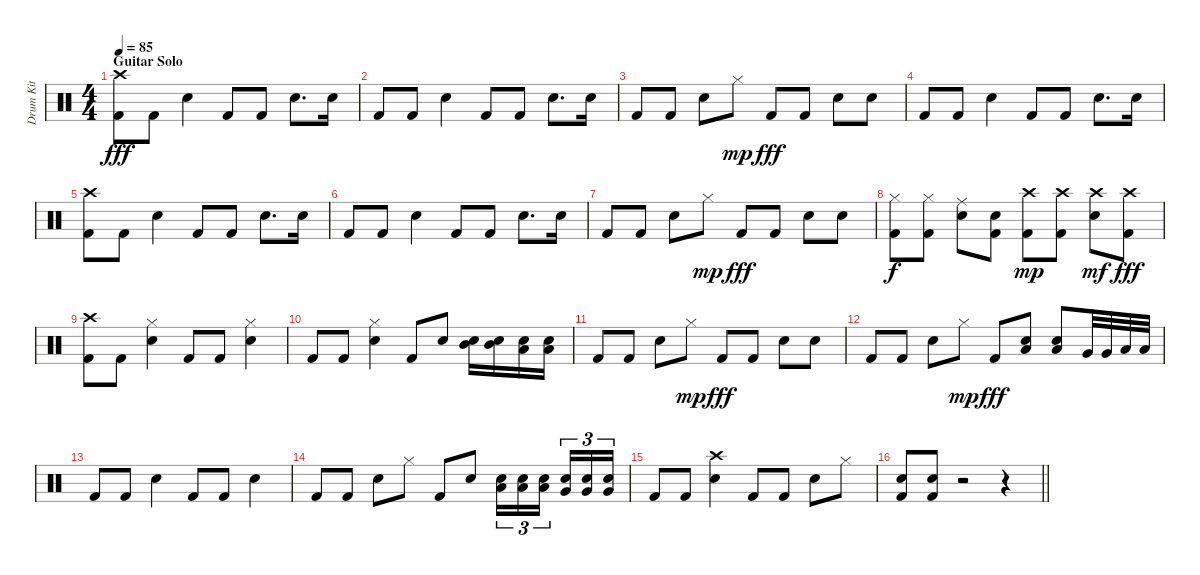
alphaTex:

\track ("Drum Kit" "Drum Kit") {instrument percussion}
\staff {score}
\articulation defaults
\ts (4 4)
\section ("" "Guitar Solo")
\tempo 85
\clef neutral
\ks c
("Crash high (hit)" "Kick (hit) 2").8{dy fff} "Kick (hit) 2".8 "Snare (hit) 2".4 "Kick (hit) 2".8 "Kick (hit) 2".8 "Snare (hit) 2".8{d} "Snare (hit) 2".16 |
"Kick (hit) 2".8 "Kick (hit) 2".8 "Snare (hit) 2".4 "Kick (hit) 2".8 "Kick (hit) 2".8 "Snare (hit) 2".8{d} "Snare (hit) 2".16 |
"Kick (hit) 2".8 "Kick (hit) 2".8 "Snare (hit) 2".8 "Hi-Hat (closed)".8{dy mp} "Kick (hit) 2".8{dy fff} "Kick (hit) 2".8 "Snare (hit) 2".8 "Snare (hit) 2".8 |
"Kick (hit) 2".8 "Kick (hit) 2".8 "Snare (hit) 2".4 "Kick (hit) 2".8 "Kick (hit) 2".8 "Snare (hit) 2".8{d} "Snare (hit) 2".16 |
("Crash high (hit)" "Kick (hit) 2").8 "Kick (hit) 2".8 "Snare (hit) 2".4 "Kick (hit) 2".8 "Kick (hit) 2".8 "Snare (hit) 2".8{d} "Snare (hit) 2".16 |
"Kick (hit) 2".8 "Kick (hit) 2".8 "Snare (hit) 2".4 "Kick (hit) 2".8 "Kick (hit) 2".8 "Snare (hit) 2".8{d} "Snare (hit) 2".16 |
"Kick (hit) 2".8 "Kick (hit) 2".8 "Snare (hit) 2".8 "Hi-Hat (closed)".8{dy mp} "Kick (hit) 2".8{dy fff} "Kick (hit) 2".8 "Snare (hit) 2".8 "Snare (hit) 2".8 |
("Hi-Hat (closed)" "Kick (hit) 2").8{dy f} ("Hi-Hat (closed)" "Kick (hit) 2").8 ("Ride (middle)" "Snare (hit) 2").8 ("Snare (hit)" "Kick (hit) 2").8 ("Crash high (hit)" "Kick (hit) 2").8{dy mp} ("Crash high (hit)" "Kick (hit) 2").8 ("Crash high (hit)" "Snare (hit) 2").8{dy mf} ("Crash high (hit)" "Kick (hit) 2").8{dy fff} |
("Crash high (hit)" "Kick (hit) 2").8 "Kick (hit) 2".8 ("Hi-Hat (closed)" "Snare (hit) 2").4 "Kick (hit) 2".8 "Kick (hit) 2".8 ("Hi-Hat (closed)" "Snare (hit) 2").4 |
"Kick (hit) 2".8 "Kick (hit) 2".8 ("Hi-Hat (closed)" "Snare (hit) 2").4 "Kick (hit) 2".8 "Snare (hit) 2".8 ("Snare (hit) 2" "Mid Tom (hit)").16 ("Snare (hit) 2" "Mid Tom (hit)").16 ("Snare (hit) 2" "Low Tom (hit)").16 ("Snare (hit) 2" "Low Tom (hit)").16 |
"Kick (hit) 2".8 "Kick (hit) 2".8 "Snare (hit) 2".8 "Hi-Hat (closed)".8{dy mp} "Kick (hit) 2".8{dy fff} "Kick (hit) 2".8 "Snare (hit) 2".8 "Snare (hit) 2".8 |
"Kick (hit) 2".8 "Kick (hit) 2".8 "Snare (hit) 2".8 "Hi-Hat (closed)".8{dy mp} "Kick (hit) 2".8{dy fff} ("Low Tom (hit)" "Snare (hit) 2").8 ("Low Tom (hit)" "Snare (hit) 2").8 "Very Low Tom (hit)".32 "Very Low Tom (hit)".32 "Low Floor Tom (hit)".32 "Low Floor Tom (hit)".32 |
"Kick (hit) 2".8 "Kick (hit) 2".8 "Snare (hit) 2".4 "Kick (hit) 2".8 "Kick (hit) 2".8 "Snare (hit) 2".4 |
"Kick (hit) 2".8 "Kick (hit) 2".8 "Snare (hit) 2".8 "Hi-Hat (closed)".8 "Kick (hit) 2".8 "Snare (hit) 2".8 ("Snare (hit) 2" "Low Tom (hit)").16{tu (3 2)} ("Snare (hit) 2" "Low Tom (hit)").16{tu (3 2)} ("Snare (hit) 2" "Low Tom (hit)").16{tu (3 2) beam splitsecondary} ("Snare (hit) 2" "Very Low Tom (hit)").16{tu (3 2)} ("Snare (hit) 2" "Very Low Tom (hit)").16{tu (3 2)} ("Snare (hit) 2" "Very Low Tom (hit)").16{tu (3 2)} |
"Kick (hit) 2".8 "Kick (hit) 2".8 ("Crash high (hit)" "Snare (hit) 2").4 "Kick (hit) 2".8 "Kick (hit) 2".8 "Snare (hit) 2".8 "Hi-Hat (closed)".8 |
\barLineRight lightlight
("Snare (hit) 2" "Kick (hit) 2").8 ("Snare (hit) 2" "Kick (hit) 2").8 r.2 r.4
